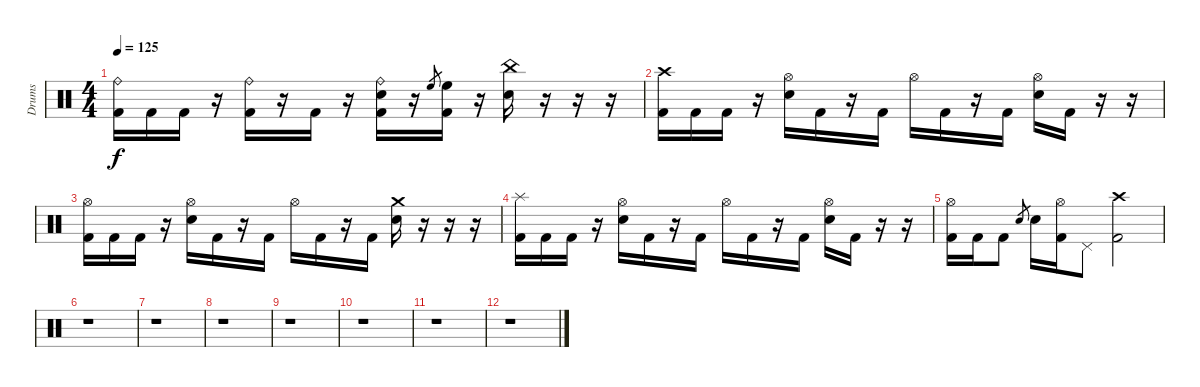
\track ("Drums" "Drums") {instrument percussion}
\staff {score}
\articulation defaults
\ts (4 4)
\tempo 125
\clef neutral
\ks c
("Ride (bell)" "Kick (hit) 2").16{dy f} "Kick (hit) 2".16 "Kick (hit) 2".16 r.16 ("Ride (bell)" "Kick (hit) 2").16 r.16 "Kick (hit) 2".16 r.16 ("Ride (bell)" "Electric Snare (hit)" "Kick (hit) 2").16 r.16 "High Floor Tom (hit)".8{gr} ("High Floor Tom (hit)" "Kick (hit) 2").16 r.16 ("China (hit)" "Electric Snare (hit)").16 r.16 r.16 r.16 |
("Crash high (hit)" "Kick (hit) 2").16 "Kick (hit) 2".16 "Kick (hit) 2".16 r.16 ("Hi-Hat (open)" "Electric Snare (hit)").16 "Kick (hit) 2".16 r.16 "Kick (hit) 2".16 "Hi-Hat (open)".16 "Kick (hit) 2".16 r.16 "Kick (hit) 2".16 ("Hi-Hat (open)" "Electric Snare (hit)").16 "Kick (hit) 2".16 r.16 r.16 |
("Hi-Hat (open)" "Kick (hit) 2").16 "Kick (hit) 2".16 "Kick (hit) 2".16 r.16 ("Hi-Hat (open)" "Electric Snare (hit)").16 "Kick (hit) 2".16 r.16 "Kick (hit) 2".16 "Hi-Hat (open)".16 "Kick (hit) 2".16 r.16 "Kick (hit) 2".16 ("Crash medium (hit)" "Electric Snare (hit)").16 r.16 r.16 r.16 |
("Splash (hit)" "Kick (hit) 2").16 "Kick (hit) 2".16 "Kick (hit) 2".16 r.16 ("Hi-Hat (open)" "Electric Snare (hit)").16 "Kick (hit) 2".16 r.16 "Kick (hit) 2".16 "Hi-Hat (open)".16 "Kick (hit) 2".16 r.16 "Kick (hit) 2".16 ("Hi-Hat (open)" "Electric Snare (hit)").16 "Kick (hit) 2".16 r.16 r.16 |
("Hi-Hat (open)" "Kick (hit) 2").16 "Kick (hit) 2".16 "Kick (hit) 2".8 "Electric Snare (hit)".8{gr} "Electric Snare (hit)".16 ("Hi-Hat (open)" "Kick (hit) 2").16 "Pedal Hi-Hat (hit)".8 ("Crash high (hit)" "Kick (hit) 2").2 |
r.1 |
r.1 |
r.1 |
r.1 |
r.1 |
r.1 |
r.1
